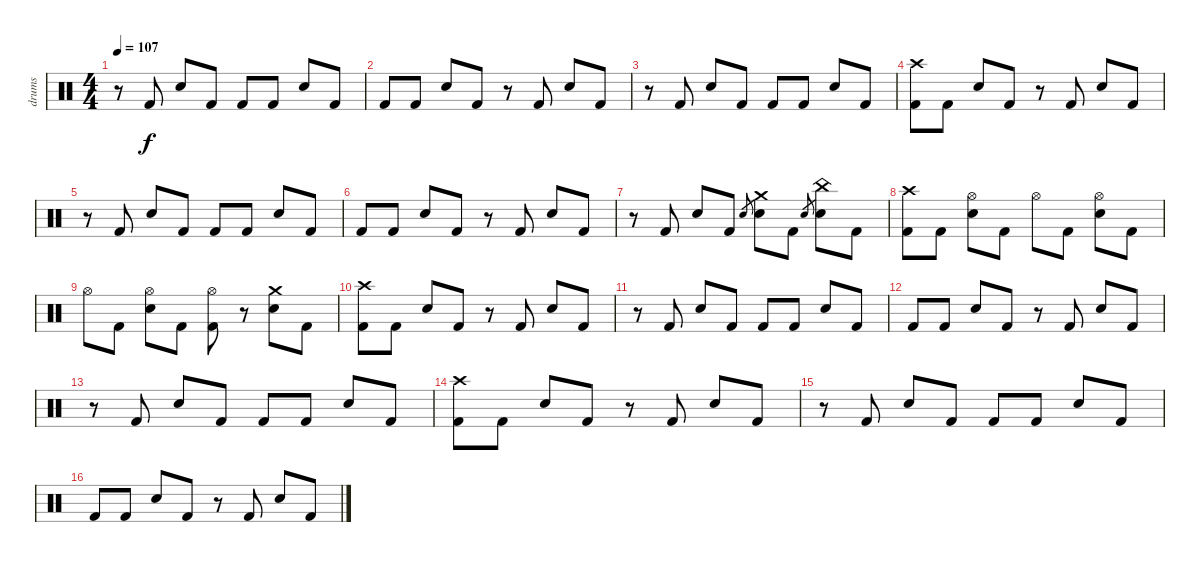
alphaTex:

\track ("drums" "drums") {instrument percussion}
\staff {score}
\articulation defaults
\ts (4 4)
\tempo 107
\clef neutral
\ks c
r.8{dy f} "Kick (hit) 2".8 "Electric Snare (hit)".8 "Kick (hit) 2".8 "Kick (hit) 2".8 "Kick (hit) 2".8 "Electric Snare (hit)".8 "Kick (hit) 2".8 |
"Kick (hit) 2".8 "Kick (hit) 2".8 "Electric Snare (hit)".8 "Kick (hit) 2".8 r.8 "Kick (hit) 2".8 "Electric Snare (hit)".8 "Kick (hit) 2".8 |
r.8 "Kick (hit) 2".8 "Electric Snare (hit)".8 "Kick (hit) 2".8 "Kick (hit) 2".8 "Kick (hit) 2".8 "Electric Snare (hit)".8 "Kick (hit) 2".8 |
("Crash high (hit)" "Kick (hit) 2").8 "Kick (hit) 2".8 "Electric Snare (hit)".8 "Kick (hit) 2".8 r.8 "Kick (hit) 2".8 "Electric Snare (hit)".8 "Kick (hit) 2".8 |
r.8 "Kick (hit) 2".8 "Electric Snare (hit)".8 "Kick (hit) 2".8 "Kick (hit) 2".8 "Kick (hit) 2".8 "Electric Snare (hit)".8 "Kick (hit) 2".8 |
"Kick (hit) 2".8 "Kick (hit) 2".8 "Electric Snare (hit)".8 "Kick (hit) 2".8 r.8 "Kick (hit) 2".8 "Electric Snare (hit)".8 "Kick (hit) 2".8 |
r.8 "Kick (hit) 2".8 "Electric Snare (hit)".8 "Kick (hit) 2".8 "Electric Snare (hit)".8{gr} ("Crash medium (hit)" "Electric Snare (hit)").8 "Kick (hit) 2".8 "Electric Snare (hit)".8{gr} ("China (hit)" "Electric Snare (hit)").8 "Kick (hit) 2".8 |
("Crash high (hit)" "Kick (hit) 2").8 "Kick (hit) 2".8 ("Hi-Hat (open)" "Electric Snare (hit)").8 "Kick (hit) 2".8 "Hi-Hat (open)".8 "Kick (hit) 2".8 ("Hi-Hat (open)" "Electric Snare (hit)").8 "Kick (hit) 2".8 |
"Hi-Hat (open)".8 "Kick (hit) 2".8 ("Hi-Hat (open)" "Electric Snare (hit)").8 "Kick (hit) 2".8 ("Hi-Hat (open)" "Kick (hit) 2").8 r.8 ("Crash medium (hit)" "Electric Snare (hit)").8 "Kick (hit) 2".8 |
("Crash high (hit)" "Kick (hit) 2").8 "Kick (hit) 2".8 "Electric Snare (hit)".8 "Kick (hit) 2".8 r.8 "Kick (hit) 2".8 "Electric Snare (hit)".8 "Kick (hit) 2".8 |
r.8 "Kick (hit) 2".8 "Electric Snare (hit)".8 "Kick (hit) 2".8 "Kick (hit) 2".8 "Kick (hit) 2".8 "Electric Snare (hit)".8 "Kick (hit) 2".8 |
"Kick (hit) 2".8 "Kick (hit) 2".8 "Electric Snare (hit)".8 "Kick (hit) 2".8 r.8 "Kick (hit) 2".8 "Electric Snare (hit)".8 "Kick (hit) 2".8 |
r.8 "Kick (hit) 2".8 "Electric Snare (hit)".8 "Kick (hit) 2".8 "Kick (hit) 2".8 "Kick (hit) 2".8 "Electric Snare (hit)".8 "Kick (hit) 2".8 |
("Crash high (hit)" "Kick (hit) 2").8 "Kick (hit) 2".8 "Electric Snare (hit)".8 "Kick (hit) 2".8 r.8 "Kick (hit) 2".8 "Electric Snare (hit)".8 "Kick (hit) 2".8 |
r.8 "Kick (hit) 2".8 "Electric Snare (hit)".8 "Kick (hit) 2".8 "Kick (hit) 2".8 "Kick (hit) 2".8 "Electric Snare (hit)".8 "Kick (hit) 2".8 |
"Kick (hit) 2".8 "Kick (hit) 2".8 "Electric Snare (hit)".8 "Kick (hit) 2".8 r.8 "Kick (hit) 2".8 "Electric Snare (hit)".8 "Kick (hit) 2".8
